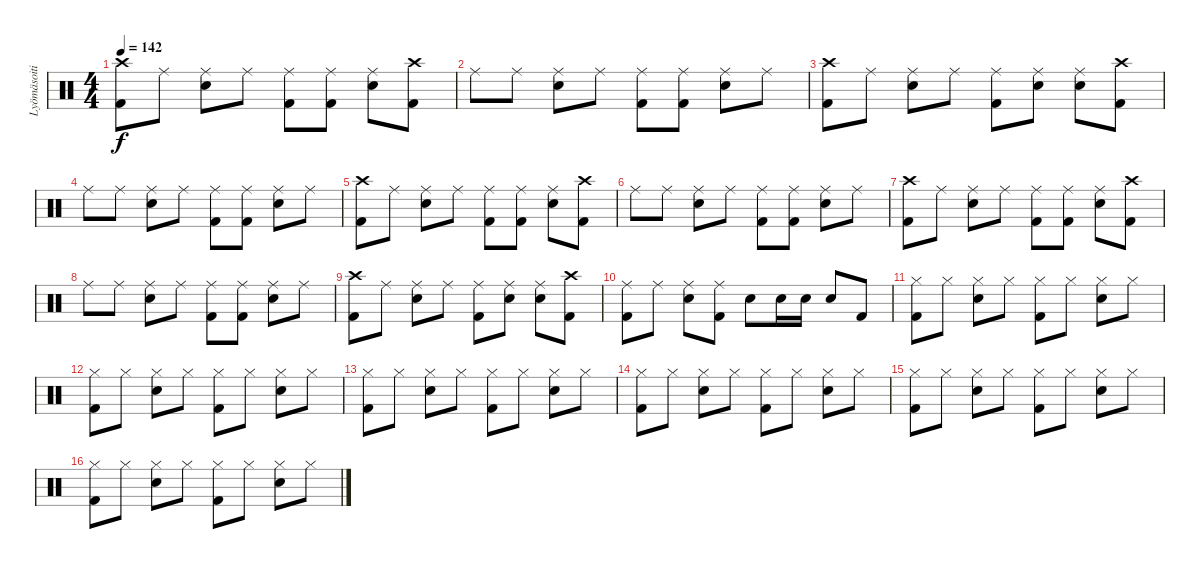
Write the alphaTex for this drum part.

\track ("Lyömäsoitin" "Lyömäsoiti") {instrument percussion}
\staff {score}
\articulation defaults
\ts (4 4)
\tempo 142
\clef neutral
\ks c
("Crash high (hit)" "Kick (hit) 2").8{dy f} "Ride (middle)".8 ("Ride (middle)" "Electric Snare (hit)").8 "Ride (middle)".8 ("Ride (middle)" "Kick (hit) 2").8 ("Ride (middle)" "Kick (hit) 2").8 ("Ride (middle)" "Electric Snare (hit)").8 ("Crash high (hit)" "Kick (hit) 2").8 |
"Ride (middle)".8 "Ride (middle)".8 ("Ride (middle)" "Electric Snare (hit)").8 "Ride (middle)".8 ("Ride (middle)" "Kick (hit) 2").8 ("Ride (middle)" "Kick (hit) 2").8 ("Ride (middle)" "Electric Snare (hit)").8 "Ride (middle)".8 |
("Crash high (hit)" "Kick (hit) 2").8 "Ride (middle)".8 ("Ride (middle)" "Electric Snare (hit)").8 "Ride (middle)".8 ("Ride (middle)" "Kick (hit) 2").8 ("Ride (middle)" "Electric Snare (hit)").8 ("Ride (middle)" "Electric Snare (hit)").8 ("Crash high (hit)" "Kick (hit) 2").8 |
"Ride (middle)".8 "Ride (middle)".8 ("Ride (middle)" "Electric Snare (hit)").8 "Ride (middle)".8 ("Ride (middle)" "Kick (hit) 2").8 ("Ride (middle)" "Kick (hit) 2").8 ("Ride (middle)" "Electric Snare (hit)").8 "Ride (middle)".8 |
("Crash high (hit)" "Kick (hit) 2").8 "Ride (middle)".8 ("Ride (middle)" "Electric Snare (hit)").8 "Ride (middle)".8 ("Ride (middle)" "Kick (hit) 2").8 ("Ride (middle)" "Kick (hit) 2").8 ("Ride (middle)" "Electric Snare (hit)").8 ("Crash high (hit)" "Kick (hit) 2").8 |
"Ride (middle)".8 "Ride (middle)".8 ("Ride (middle)" "Electric Snare (hit)").8 "Ride (middle)".8 ("Ride (middle)" "Kick (hit) 2").8 ("Ride (middle)" "Kick (hit) 2").8 ("Ride (middle)" "Electric Snare (hit)").8 "Ride (middle)".8 |
("Crash high (hit)" "Kick (hit) 2").8 "Ride (middle)".8 ("Ride (middle)" "Electric Snare (hit)").8 "Ride (middle)".8 ("Ride (middle)" "Kick (hit) 2").8 ("Ride (middle)" "Kick (hit) 2").8 ("Ride (middle)" "Electric Snare (hit)").8 ("Crash high (hit)" "Kick (hit) 2").8 |
"Ride (middle)".8 "Ride (middle)".8 ("Ride (middle)" "Electric Snare (hit)").8 "Ride (middle)".8 ("Ride (middle)" "Kick (hit) 2").8 ("Ride (middle)" "Kick (hit) 2").8 ("Ride (middle)" "Electric Snare (hit)").8 "Ride (middle)".8 |
("Crash high (hit)" "Kick (hit) 2").8 "Ride (middle)".8 ("Ride (middle)" "Electric Snare (hit)").8 "Ride (middle)".8 ("Ride (middle)" "Kick (hit) 2").8 ("Ride (middle)" "Electric Snare (hit)").8 ("Ride (middle)" "Electric Snare (hit)").8 ("Crash high (hit)" "Kick (hit) 2").8 |
("Ride (middle)" "Kick (hit) 2").8 "Ride (middle)".8 ("Ride (middle)" "Electric Snare (hit)").8 ("Ride (middle)" "Kick (hit) 2").8 "Electric Snare (hit)".8 "Electric Snare (hit)".16 "Electric Snare (hit)".16 "Electric Snare (hit)".8 "Kick (hit) 2".8 |
("Hi-Hat (closed)" "Kick (hit) 2").8 "Hi-Hat (closed)".8 ("Hi-Hat (closed)" "Electric Snare (hit)").8 "Hi-Hat (closed)".8 ("Hi-Hat (closed)" "Kick (hit) 2").8 "Hi-Hat (closed)".8 ("Hi-Hat (closed)" "Electric Snare (hit)").8 "Hi-Hat (closed)".8 |
("Hi-Hat (closed)" "Kick (hit) 2").8 "Hi-Hat (closed)".8 ("Hi-Hat (closed)" "Electric Snare (hit)").8 "Hi-Hat (closed)".8 ("Hi-Hat (closed)" "Kick (hit) 2").8 "Hi-Hat (closed)".8 ("Hi-Hat (closed)" "Electric Snare (hit)").8 "Hi-Hat (closed)".8 |
("Hi-Hat (closed)" "Kick (hit) 2").8 "Hi-Hat (closed)".8 ("Hi-Hat (closed)" "Electric Snare (hit)").8 "Hi-Hat (closed)".8 ("Hi-Hat (closed)" "Kick (hit) 2").8 "Hi-Hat (closed)".8 ("Hi-Hat (closed)" "Electric Snare (hit)").8 "Hi-Hat (closed)".8 |
("Hi-Hat (closed)" "Kick (hit) 2").8 "Hi-Hat (closed)".8 ("Hi-Hat (closed)" "Electric Snare (hit)").8 "Hi-Hat (closed)".8 ("Hi-Hat (closed)" "Kick (hit) 2").8 "Hi-Hat (closed)".8 ("Hi-Hat (closed)" "Electric Snare (hit)").8 "Hi-Hat (closed)".8 |
("Hi-Hat (closed)" "Kick (hit) 2").8 "Hi-Hat (closed)".8 ("Hi-Hat (closed)" "Electric Snare (hit)").8 "Hi-Hat (closed)".8 ("Hi-Hat (closed)" "Kick (hit) 2").8 "Hi-Hat (closed)".8 ("Hi-Hat (closed)" "Electric Snare (hit)").8 "Hi-Hat (closed)".8 |
("Hi-Hat (closed)" "Kick (hit) 2").8 "Hi-Hat (closed)".8 ("Hi-Hat (closed)" "Electric Snare (hit)").8 "Hi-Hat (closed)".8 ("Hi-Hat (closed)" "Kick (hit) 2").8 "Hi-Hat (closed)".8 ("Hi-Hat (closed)" "Electric Snare (hit)").8 "Hi-Hat (closed)".8
